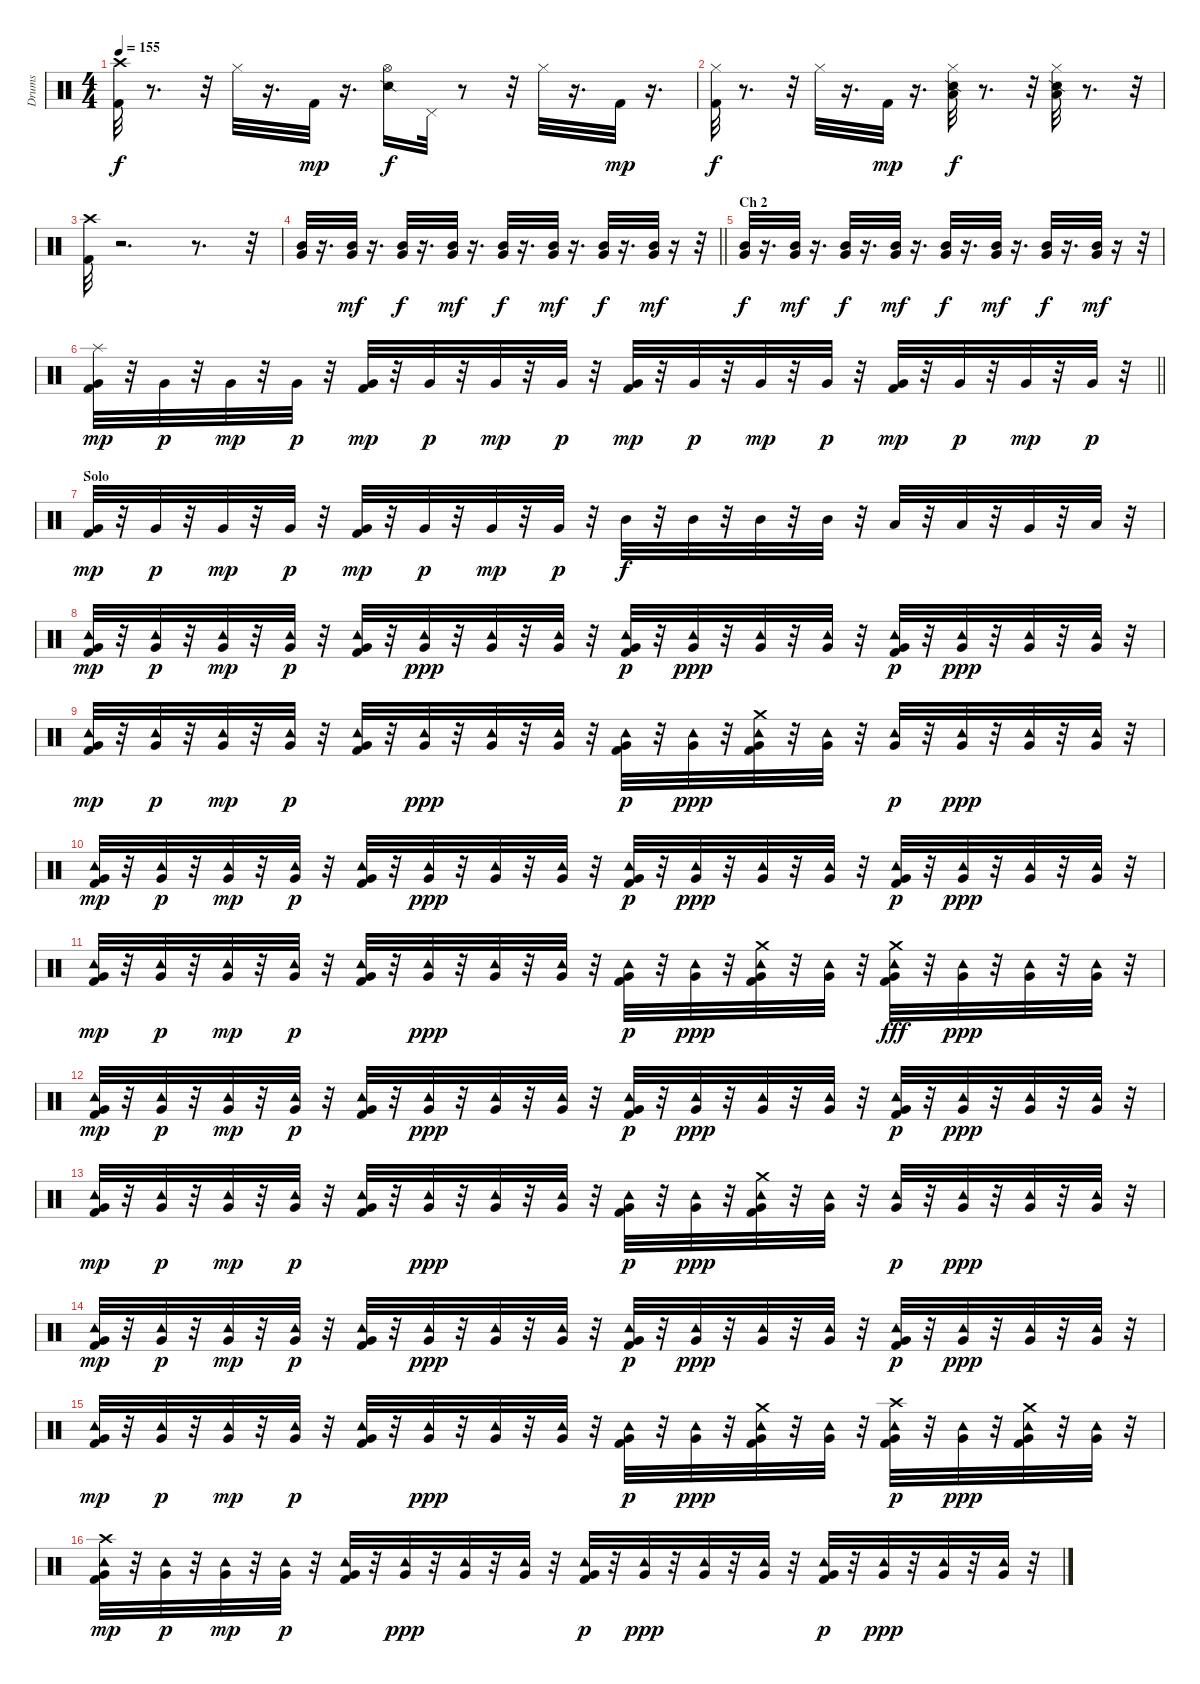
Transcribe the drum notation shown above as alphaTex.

\track ("Drums" "Drums") {instrument percussion}
\staff {score}
\articulation defaults
\ts (4 4)
\tempo 155
\clef neutral
\ks c
("Crash high (hit)" "Kick (hit) 2").32{dy f} r.8{d} r.32 "Hi-Hat (closed)".32 r.16{d} "Kick (hit) 2".32{dy mp} r.16{d} ("Hi-Hat (open)" "Snare (side stick) 2").16{dy f} "Pedal Hi-Hat (hit)".32 r.8 r.32 "Hi-Hat (closed)".32 r.16{d} "Kick (hit) 2".32{dy mp} r.16{d} |
("Hi-Hat (closed)" "Kick (hit) 2").32{dy f} r.8{d} r.32 "Hi-Hat (closed)".32 r.16{d} "Kick (hit) 2".32{dy mp} r.16{d} ("Hi-Hat (closed)" "Low Tom (hit)" "Snare (side stick) 2").32{dy f} r.8{d} r.32 ("Hi-Hat (closed)" "Snare (side stick) 2" "Low Floor Tom (hit)").32 r.8{d} r.32 |
("Crash high (hit)" "Kick (hit) 2").32 r.2{d} r.8{d} r.32 |
\barLineRight lightlight
("Mid Tom (hit)" "Very Low Tom (hit)").32 r.16{d} ("Very Low Tom (hit)" "Mid Tom (hit)").32{dy mf} r.16{d} ("Mid Tom (hit)" "Very Low Tom (hit)").32{dy f} r.16{d} ("Very Low Tom (hit)" "Mid Tom (hit)").32{dy mf} r.16{d} ("Mid Tom (hit)" "Very Low Tom (hit)").32{dy f} r.16{d} ("Very Low Tom (hit)" "Mid Tom (hit)").32{dy mf} r.16{d} ("Mid Tom (hit)" "Very Low Tom (hit)").32{dy f} r.16{d} ("Very Low Tom (hit)" "Mid Tom (hit)").32{dy mf} r.16 r.32 |
\section ("" "Ch 2")
("Mid Tom (hit)" "Very Low Tom (hit)").32{dy f} r.16{d} ("Very Low Tom (hit)" "Mid Tom (hit)").32{dy mf} r.16{d} ("Mid Tom (hit)" "Very Low Tom (hit)").32{dy f} r.16{d} ("Very Low Tom (hit)" "Mid Tom (hit)").32{dy mf} r.16{d} ("Mid Tom (hit)" "Very Low Tom (hit)").32{dy f} r.16{d} ("Very Low Tom (hit)" "Mid Tom (hit)").32{dy mf} r.16{d} ("Mid Tom (hit)" "Very Low Tom (hit)").32{dy f} r.16{d} ("Very Low Tom (hit)" "Mid Tom (hit)").32{dy mf} r.16 r.32 |
\barLineRight lightlight
("Very Low Tom (hit)" "Kick (hit) 2" "Splash (hit)").32{dy mp} r.32 "Very Low Tom (hit)".32{dy p} r.32 "Very Low Tom (hit)".32{dy mp} r.32 "Very Low Tom (hit)".32{dy p} r.32 ("Kick (hit) 2" "Very Low Tom (hit)").32{dy mp} r.32 "Very Low Tom (hit)".32{dy p} r.32 "Very Low Tom (hit)".32{dy mp} r.32 "Very Low Tom (hit)".32{dy p} r.32 ("Kick (hit) 2" "Very Low Tom (hit)").32{dy mp} r.32 "Very Low Tom (hit)".32{dy p} r.32 "Very Low Tom (hit)".32{dy mp} r.32 "Very Low Tom (hit)".32{dy p} r.32 ("Kick (hit) 2" "Very Low Tom (hit)").32{dy mp} r.32 "Very Low Tom (hit)".32{dy p} r.32 "Very Low Tom (hit)".32{dy mp} r.32 "Very Low Tom (hit)".32{dy p} r.32 |
\section ("" "Solo")
("Very Low Tom (hit)" "Kick (hit) 2").32{dy mp} r.32 "Very Low Tom (hit)".32{dy p} r.32 "Very Low Tom (hit)".32{dy mp} r.32 "Very Low Tom (hit)".32{dy p} r.32 ("Kick (hit) 2" "Very Low Tom (hit)").32{dy mp} r.32 "Very Low Tom (hit)".32{dy p} r.32 "Very Low Tom (hit)".32{dy mp} r.32 "Very Low Tom (hit)".32{dy p} r.32 "Mid Tom (hit)".32{dy f} r.32 "Mid Tom (hit)".32 r.32 "Mid Tom (hit)".32 r.32 "Mid Tom (hit)".32 r.32 "Low Tom (hit)".32 r.32 "Low Tom (hit)".32 r.32 "Very Low Tom (hit)".32 r.32 "Low Floor Tom (hit)".32 r.32 |
("Tambourine (hit)" "Very Low Tom (hit)" "Kick (hit) 2").32{dy mp} r.32 ("Tambourine (hit)" "Very Low Tom (hit)").32{dy p} r.32 ("Tambourine (hit)" "Very Low Tom (hit)").32{dy mp} r.32 ("Tambourine (hit)" "Very Low Tom (hit)").32{dy p} r.32 ("Kick (hit) 2" "Very Low Tom (hit)" "Tambourine (hit)").32 r.32 ("Very Low Tom (hit)" "Tambourine (hit)").32{dy ppp} r.32 ("Very Low Tom (hit)" "Tambourine (hit)").32 r.32 ("Very Low Tom (hit)" "Tambourine (hit)").32 r.32 ("Kick (hit) 2" "Very Low Tom (hit)" "Tambourine (hit)").32{dy p} r.32 ("Very Low Tom (hit)" "Tambourine (hit)").32{dy ppp} r.32 ("Very Low Tom (hit)" "Tambourine (hit)").32 r.32 ("Very Low Tom (hit)" "Tambourine (hit)").32 r.32 ("Kick (hit) 2" "Very Low Tom (hit)" "Tambourine (hit)").32{dy p} r.32 ("Very Low Tom (hit)" "Tambourine (hit)").32{dy ppp} r.32 ("Very Low Tom (hit)" "Tambourine (hit)").32 r.32 ("Very Low Tom (hit)" "Tambourine (hit)").32 r.32 |
("Tambourine (hit)" "Very Low Tom (hit)" "Kick (hit) 2").32{dy mp} r.32 ("Tambourine (hit)" "Very Low Tom (hit)").32{dy p} r.32 ("Tambourine (hit)" "Very Low Tom (hit)").32{dy mp} r.32 ("Tambourine (hit)" "Very Low Tom (hit)").32{dy p} r.32 ("Kick (hit) 2" "Very Low Tom (hit)" "Tambourine (hit)").32 r.32 ("Very Low Tom (hit)" "Tambourine (hit)").32{dy ppp} r.32 ("Very Low Tom (hit)" "Tambourine (hit)").32 r.32 ("Very Low Tom (hit)" "Tambourine (hit)").32 r.32 ("Kick (hit) 2" "Very Low Tom (hit)" "Tambourine (hit)").32{dy p} r.32 ("Very Low Tom (hit)" "Tambourine (hit)").32{dy ppp} r.32 ("Very Low Tom (hit)" "Crash medium (hit)" "Kick (hit) 2" "Tambourine (hit)").32 r.32 ("Very Low Tom (hit)" "Tambourine (hit)").32 r.32 ("Very Low Tom (hit)" "Tambourine (hit)").32{dy p} r.32 ("Very Low Tom (hit)" "Tambourine (hit)").32{dy ppp} r.32 ("Very Low Tom (hit)" "Tambourine (hit)").32 r.32 ("Very Low Tom (hit)" "Tambourine (hit)").32 r.32 |
("Tambourine (hit)" "Very Low Tom (hit)" "Kick (hit) 2").32{dy mp} r.32 ("Tambourine (hit)" "Very Low Tom (hit)").32{dy p} r.32 ("Tambourine (hit)" "Very Low Tom (hit)").32{dy mp} r.32 ("Tambourine (hit)" "Very Low Tom (hit)").32{dy p} r.32 ("Kick (hit) 2" "Very Low Tom (hit)" "Tambourine (hit)").32 r.32 ("Very Low Tom (hit)" "Tambourine (hit)").32{dy ppp} r.32 ("Very Low Tom (hit)" "Tambourine (hit)").32 r.32 ("Very Low Tom (hit)" "Tambourine (hit)").32 r.32 ("Kick (hit) 2" "Very Low Tom (hit)" "Tambourine (hit)").32{dy p} r.32 ("Very Low Tom (hit)" "Tambourine (hit)").32{dy ppp} r.32 ("Very Low Tom (hit)" "Tambourine (hit)").32 r.32 ("Very Low Tom (hit)" "Tambourine (hit)").32 r.32 ("Kick (hit) 2" "Very Low Tom (hit)" "Tambourine (hit)").32{dy p} r.32 ("Very Low Tom (hit)" "Tambourine (hit)").32{dy ppp} r.32 ("Very Low Tom (hit)" "Tambourine (hit)").32 r.32 ("Very Low Tom (hit)" "Tambourine (hit)").32 r.32 |
("Tambourine (hit)" "Very Low Tom (hit)" "Kick (hit) 2").32{dy mp} r.32 ("Tambourine (hit)" "Very Low Tom (hit)").32{dy p} r.32 ("Tambourine (hit)" "Very Low Tom (hit)").32{dy mp} r.32 ("Tambourine (hit)" "Very Low Tom (hit)").32{dy p} r.32 ("Kick (hit) 2" "Very Low Tom (hit)" "Tambourine (hit)").32 r.32 ("Very Low Tom (hit)" "Tambourine (hit)").32{dy ppp} r.32 ("Very Low Tom (hit)" "Tambourine (hit)").32 r.32 ("Very Low Tom (hit)" "Tambourine (hit)").32 r.32 ("Kick (hit) 2" "Very Low Tom (hit)" "Tambourine (hit)").32{dy p} r.32 ("Very Low Tom (hit)" "Tambourine (hit)").32{dy ppp} r.32 ("Very Low Tom (hit)" "Crash medium (hit)" "Kick (hit) 2" "Tambourine (hit)").32 r.32 ("Very Low Tom (hit)" "Tambourine (hit)").32 r.32 ("Very Low Tom (hit)" "Tambourine (hit)" "Crash medium (hit)" "Kick (hit) 2").32{dy fff} r.32 ("Very Low Tom (hit)" "Tambourine (hit)").32{dy ppp} r.32 ("Very Low Tom (hit)" "Tambourine (hit)").32 r.32 ("Very Low Tom (hit)" "Tambourine (hit)").32 r.32 |
("Tambourine (hit)" "Very Low Tom (hit)" "Kick (hit) 2").32{dy mp} r.32 ("Tambourine (hit)" "Very Low Tom (hit)").32{dy p} r.32 ("Tambourine (hit)" "Very Low Tom (hit)").32{dy mp} r.32 ("Tambourine (hit)" "Very Low Tom (hit)").32{dy p} r.32 ("Kick (hit) 2" "Very Low Tom (hit)" "Tambourine (hit)").32 r.32 ("Very Low Tom (hit)" "Tambourine (hit)").32{dy ppp} r.32 ("Very Low Tom (hit)" "Tambourine (hit)").32 r.32 ("Very Low Tom (hit)" "Tambourine (hit)").32 r.32 ("Kick (hit) 2" "Very Low Tom (hit)" "Tambourine (hit)").32{dy p} r.32 ("Very Low Tom (hit)" "Tambourine (hit)").32{dy ppp} r.32 ("Very Low Tom (hit)" "Tambourine (hit)").32 r.32 ("Very Low Tom (hit)" "Tambourine (hit)").32 r.32 ("Kick (hit) 2" "Very Low Tom (hit)" "Tambourine (hit)").32{dy p} r.32 ("Very Low Tom (hit)" "Tambourine (hit)").32{dy ppp} r.32 ("Very Low Tom (hit)" "Tambourine (hit)").32 r.32 ("Very Low Tom (hit)" "Tambourine (hit)").32 r.32 |
("Tambourine (hit)" "Very Low Tom (hit)" "Kick (hit) 2").32{dy mp} r.32 ("Tambourine (hit)" "Very Low Tom (hit)").32{dy p} r.32 ("Tambourine (hit)" "Very Low Tom (hit)").32{dy mp} r.32 ("Tambourine (hit)" "Very Low Tom (hit)").32{dy p} r.32 ("Kick (hit) 2" "Very Low Tom (hit)" "Tambourine (hit)").32 r.32 ("Very Low Tom (hit)" "Tambourine (hit)").32{dy ppp} r.32 ("Very Low Tom (hit)" "Tambourine (hit)").32 r.32 ("Very Low Tom (hit)" "Tambourine (hit)").32 r.32 ("Kick (hit) 2" "Very Low Tom (hit)" "Tambourine (hit)").32{dy p} r.32 ("Very Low Tom (hit)" "Tambourine (hit)").32{dy ppp} r.32 ("Very Low Tom (hit)" "Crash medium (hit)" "Kick (hit) 2" "Tambourine (hit)").32 r.32 ("Very Low Tom (hit)" "Tambourine (hit)").32 r.32 ("Very Low Tom (hit)" "Tambourine (hit)").32{dy p} r.32 ("Very Low Tom (hit)" "Tambourine (hit)").32{dy ppp} r.32 ("Very Low Tom (hit)" "Tambourine (hit)").32 r.32 ("Very Low Tom (hit)" "Tambourine (hit)").32 r.32 |
("Tambourine (hit)" "Very Low Tom (hit)" "Kick (hit) 2").32{dy mp} r.32 ("Tambourine (hit)" "Very Low Tom (hit)").32{dy p} r.32 ("Tambourine (hit)" "Very Low Tom (hit)").32{dy mp} r.32 ("Tambourine (hit)" "Very Low Tom (hit)").32{dy p} r.32 ("Kick (hit) 2" "Very Low Tom (hit)" "Tambourine (hit)").32 r.32 ("Very Low Tom (hit)" "Tambourine (hit)").32{dy ppp} r.32 ("Very Low Tom (hit)" "Tambourine (hit)").32 r.32 ("Very Low Tom (hit)" "Tambourine (hit)").32 r.32 ("Kick (hit) 2" "Very Low Tom (hit)" "Tambourine (hit)").32{dy p} r.32 ("Very Low Tom (hit)" "Tambourine (hit)").32{dy ppp} r.32 ("Very Low Tom (hit)" "Tambourine (hit)").32 r.32 ("Very Low Tom (hit)" "Tambourine (hit)").32 r.32 ("Very Low Tom (hit)" "Kick (hit) 2" "Tambourine (hit)").32{dy p} r.32 ("Very Low Tom (hit)" "Tambourine (hit)").32{dy ppp} r.32 ("Very Low Tom (hit)" "Tambourine (hit)").32 r.32 ("Very Low Tom (hit)" "Tambourine (hit)").32 r.32 |
("Tambourine (hit)" "Very Low Tom (hit)" "Kick (hit) 2").32{dy mp} r.32 ("Tambourine (hit)" "Very Low Tom (hit)").32{dy p} r.32 ("Tambourine (hit)" "Very Low Tom (hit)").32{dy mp} r.32 ("Tambourine (hit)" "Very Low Tom (hit)").32{dy p} r.32 ("Kick (hit) 2" "Very Low Tom (hit)" "Tambourine (hit)").32 r.32 ("Very Low Tom (hit)" "Tambourine (hit)").32{dy ppp} r.32 ("Very Low Tom (hit)" "Tambourine (hit)").32 r.32 ("Very Low Tom (hit)" "Tambourine (hit)").32 r.32 ("Kick (hit) 2" "Very Low Tom (hit)" "Tambourine (hit)").32{dy p} r.32 ("Very Low Tom (hit)" "Tambourine (hit)").32{dy ppp} r.32 ("Very Low Tom (hit)" "Kick (hit) 2" "Crash medium (hit)" "Tambourine (hit)").32 r.32 ("Very Low Tom (hit)" "Tambourine (hit)").32 r.32 ("Very Low Tom (hit)" "Crash high (hit)" "Kick (hit) 2" "Tambourine (hit)").32{dy p} r.32 ("Very Low Tom (hit)" "Tambourine (hit)").32{dy ppp} r.32 ("Very Low Tom (hit)" "Kick (hit) 2" "Crash medium (hit)" "Tambourine (hit)").32 r.32 ("Very Low Tom (hit)" "Tambourine (hit)").32 r.32 |
("Kick (hit) 2" "Crash high (hit)" "Tambourine (hit)" "Very Low Tom (hit)").32{dy mp} r.32 ("Tambourine (hit)" "Very Low Tom (hit)").32{dy p} r.32 ("Tambourine (hit)" "Very Low Tom (hit)").32{dy mp} r.32 ("Tambourine (hit)" "Very Low Tom (hit)").32{dy p} r.32 ("Kick (hit) 2" "Very Low Tom (hit)" "Tambourine (hit)").32 r.32 ("Very Low Tom (hit)" "Tambourine (hit)").32{dy ppp} r.32 ("Very Low Tom (hit)" "Tambourine (hit)").32 r.32 ("Very Low Tom (hit)" "Tambourine (hit)").32 r.32 ("Kick (hit) 2" "Very Low Tom (hit)" "Tambourine (hit)").32{dy p} r.32 ("Very Low Tom (hit)" "Tambourine (hit)").32{dy ppp} r.32 ("Very Low Tom (hit)" "Tambourine (hit)").32 r.32 ("Very Low Tom (hit)" "Tambourine (hit)").32 r.32 ("Very Low Tom (hit)" "Kick (hit) 2" "Tambourine (hit)").32{dy p} r.32 ("Very Low Tom (hit)" "Tambourine (hit)").32{dy ppp} r.32 ("Very Low Tom (hit)" "Tambourine (hit)").32 r.32 ("Very Low Tom (hit)" "Tambourine (hit)").32 r.32
